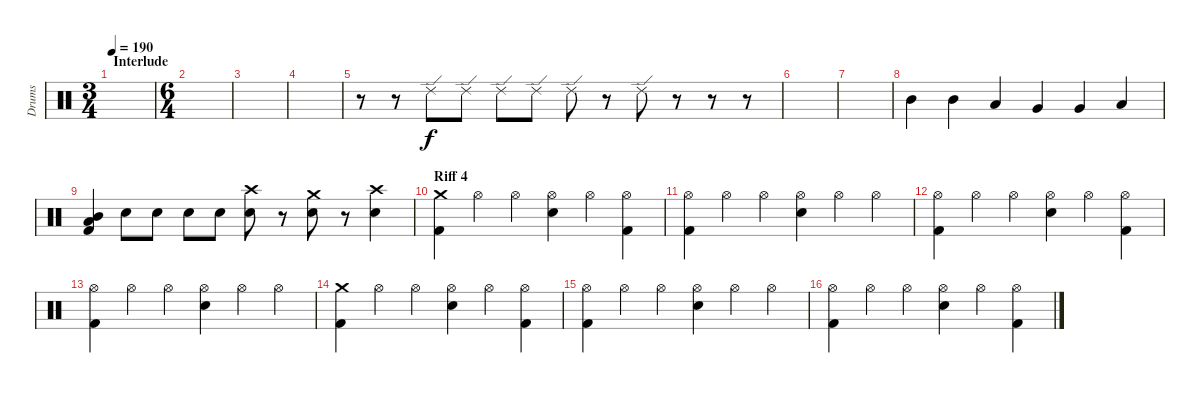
\track ("Drums" "Drums") {instrument percussion}
\staff {score}
\articulation defaults
\ts (3 4)
\section ("" "Interlude")
\tempo 190
\clef neutral
\ks c
|
\ts (6 4)
|
|
|
r.8 r.8 "Ride (edge) 2".8 "Ride (edge) 2".8 "Ride (edge) 2".8 "Ride (edge) 2".8 "Ride (edge) 2".8 r.8 "Ride (edge) 2".8 r.8 r.8 r.8 |
|
|
"Mid Tom (hit)".4 "Mid Tom (hit)".4 "Low Tom (hit)".4 "Very Low Tom (hit)".4 "Very Low Tom (hit)".4 "Low Floor Tom (hit)".4 |
("Mid Tom (hit)" "Low Tom (hit)" "Kick (hit) 2").4 "Electric Snare (hit)".8 "Electric Snare (hit)".8 "Electric Snare (hit)".8 "Electric Snare (hit)".8 ("Crash high (hit)" "Electric Snare (hit)").8 r.8 ("Crash medium (hit)" "Electric Snare (hit)").8 r.8 ("Crash high (hit)" "Electric Snare (hit)").4 |
\section ("" "Riff 4")
("Crash medium (hit)" "Kick (hit) 2").4 "Hi-Hat (open)".4 "Hi-Hat (open)".4 ("Hi-Hat (open)" "Electric Snare (hit)").4 "Hi-Hat (open)".4 ("Hi-Hat (open)" "Kick (hit) 2").4 |
("Hi-Hat (open)" "Kick (hit) 2").4 "Hi-Hat (open)".4 "Hi-Hat (open)".4 ("Hi-Hat (open)" "Electric Snare (hit)").4 "Hi-Hat (open)".4 "Hi-Hat (open)".4 |
("Hi-Hat (open)" "Kick (hit) 2").4 "Hi-Hat (open)".4 "Hi-Hat (open)".4 ("Hi-Hat (open)" "Electric Snare (hit)").4 "Hi-Hat (open)".4 ("Hi-Hat (open)" "Kick (hit) 2").4 |
("Hi-Hat (open)" "Kick (hit) 2").4 "Hi-Hat (open)".4 "Hi-Hat (open)".4 ("Hi-Hat (open)" "Electric Snare (hit)").4 "Hi-Hat (open)".4 "Hi-Hat (open)".4 |
("Crash medium (hit)" "Kick (hit) 2").4 "Hi-Hat (open)".4 "Hi-Hat (open)".4 ("Hi-Hat (open)" "Electric Snare (hit)").4 "Hi-Hat (open)".4 ("Hi-Hat (open)" "Kick (hit) 2").4 |
("Hi-Hat (open)" "Kick (hit) 2").4 "Hi-Hat (open)".4 "Hi-Hat (open)".4 ("Hi-Hat (open)" "Electric Snare (hit)").4 "Hi-Hat (open)".4 "Hi-Hat (open)".4 |
("Hi-Hat (open)" "Kick (hit) 2").4 "Hi-Hat (open)".4 "Hi-Hat (open)".4 ("Hi-Hat (open)" "Electric Snare (hit)").4 "Hi-Hat (open)".4 ("Hi-Hat (open)" "Kick (hit) 2").4
